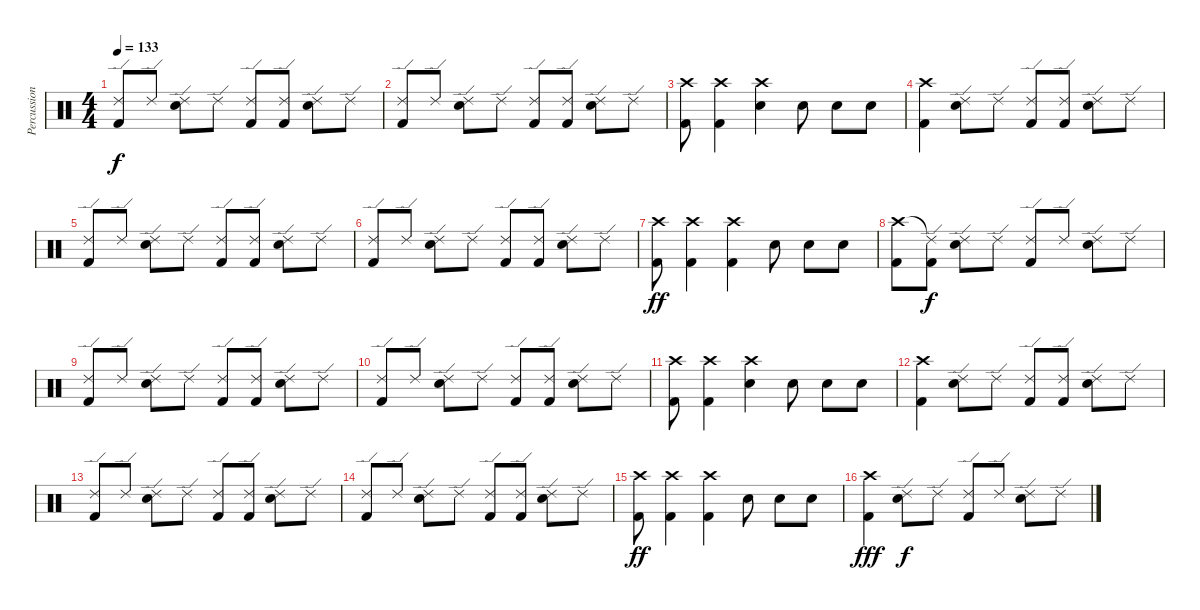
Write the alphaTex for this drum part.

\track ("Percussion" "Percussion") {instrument percussion}
\staff {score}
\articulation defaults
\ts (4 4)
\tempo 133
\clef neutral
\ks c
("Ride (edge) 2" "Kick (hit) 2").8{dy f} "Ride (edge) 2".8 ("Ride (edge) 2" "Snare (hit) 2").8 "Ride (edge) 2".8 ("Ride (edge) 2" "Kick (hit) 2").8 ("Ride (edge) 2" "Kick (hit) 2").8 ("Ride (edge) 2" "Snare (hit) 2").8 "Ride (edge) 2".8 |
("Ride (edge) 2" "Kick (hit) 2").8 "Ride (edge) 2".8 ("Ride (edge) 2" "Snare (hit) 2").8 "Ride (edge) 2".8 ("Ride (edge) 2" "Kick (hit) 2").8 ("Ride (edge) 2" "Kick (hit) 2").8 ("Ride (edge) 2" "Snare (hit) 2").8 "Ride (edge) 2".8 |
("Crash high (hit)" "Kick (hit) 2").8 ("Crash high (hit)" "Kick (hit) 2").4 ("Crash high (hit)" "Snare (hit) 2").4 "Electric Snare (hit)".8 "Electric Snare (hit)".8 "Electric Snare (hit)".8 |
("Crash high (hit)" "Kick (hit) 2").4 ("Ride (edge) 2" "Snare (hit) 2").8 "Ride (edge) 2".8 ("Ride (edge) 2" "Kick (hit) 2").8 ("Ride (edge) 2" "Kick (hit) 2").8 ("Ride (edge) 2" "Snare (hit) 2").8 "Ride (edge) 2".8 |
("Ride (edge) 2" "Kick (hit) 2").8 "Ride (edge) 2".8 ("Ride (edge) 2" "Snare (hit) 2").8 "Ride (edge) 2".8 ("Ride (edge) 2" "Kick (hit) 2").8 ("Ride (edge) 2" "Kick (hit) 2").8 ("Ride (edge) 2" "Snare (hit) 2").8 "Ride (edge) 2".8 |
("Ride (edge) 2" "Kick (hit) 2").8 "Ride (edge) 2".8 ("Ride (edge) 2" "Snare (hit) 2").8 "Ride (edge) 2".8 ("Ride (edge) 2" "Kick (hit) 2").8 ("Ride (edge) 2" "Kick (hit) 2").8 ("Ride (edge) 2" "Snare (hit) 2").8 "Ride (edge) 2".8 |
("Crash high (hit)" "Kick (hit) 2").8{dy ff} ("Crash high (hit)" "Kick (hit) 2").4 ("Crash high (hit)" "Kick (hit) 2").4 "Snare (hit) 2".8 "Snare (hit) 2".8 "Snare (hit) 2".8 |
("Crash high (hit)" "Kick (hit) 2").8 ("Ride (edge) 2"{t} "Kick (hit) 2").8{dy f} ("Ride (edge) 2" "Snare (hit) 2").8 "Ride (edge) 2".8 ("Ride (edge) 2" "Kick (hit) 2").8 "Ride (edge) 2".8 ("Ride (edge) 2" "Snare (hit) 2").8 "Ride (edge) 2".8 |
("Ride (edge) 2" "Kick (hit) 2").8 "Ride (edge) 2".8 ("Ride (edge) 2" "Snare (hit) 2").8 "Ride (edge) 2".8 ("Ride (edge) 2" "Kick (hit) 2").8 ("Ride (edge) 2" "Kick (hit) 2").8 ("Ride (edge) 2" "Snare (hit) 2").8 "Ride (edge) 2".8 |
("Ride (edge) 2" "Kick (hit) 2").8 "Ride (edge) 2".8 ("Ride (edge) 2" "Snare (hit) 2").8 "Ride (edge) 2".8 ("Ride (edge) 2" "Kick (hit) 2").8 ("Ride (edge) 2" "Kick (hit) 2").8 ("Ride (edge) 2" "Snare (hit) 2").8 "Ride (edge) 2".8 |
("Crash high (hit)" "Kick (hit) 2").8 ("Crash high (hit)" "Kick (hit) 2").4 ("Crash high (hit)" "Snare (hit) 2").4 "Electric Snare (hit)".8 "Electric Snare (hit)".8 "Electric Snare (hit)".8 |
("Crash high (hit)" "Kick (hit) 2").4 ("Ride (edge) 2" "Snare (hit) 2").8 "Ride (edge) 2".8 ("Ride (edge) 2" "Kick (hit) 2").8 ("Ride (edge) 2" "Kick (hit) 2").8 ("Ride (edge) 2" "Snare (hit) 2").8 "Ride (edge) 2".8 |
("Ride (edge) 2" "Kick (hit) 2").8 "Ride (edge) 2".8 ("Ride (edge) 2" "Snare (hit) 2").8 "Ride (edge) 2".8 ("Ride (edge) 2" "Kick (hit) 2").8 ("Ride (edge) 2" "Kick (hit) 2").8 ("Ride (edge) 2" "Snare (hit) 2").8 "Ride (edge) 2".8 |
("Ride (edge) 2" "Kick (hit) 2").8 "Ride (edge) 2".8 ("Ride (edge) 2" "Snare (hit) 2").8 "Ride (edge) 2".8 ("Ride (edge) 2" "Kick (hit) 2").8 ("Ride (edge) 2" "Kick (hit) 2").8 ("Ride (edge) 2" "Snare (hit) 2").8 "Ride (edge) 2".8 |
("Crash high (hit)" "Kick (hit) 2").8{dy ff} ("Crash high (hit)" "Kick (hit) 2").4 ("Crash high (hit)" "Kick (hit) 2").4 "Snare (hit) 2".8 "Snare (hit) 2".8 "Snare (hit) 2".8 |
("Crash high (hit)" "Kick (hit) 2").4{dy fff} ("Ride (edge) 2" "Snare (hit) 2").8{dy f} "Ride (edge) 2".8 ("Ride (edge) 2" "Kick (hit) 2").8 "Ride (edge) 2".8 ("Ride (edge) 2" "Snare (hit) 2").8 "Ride (edge) 2".8
